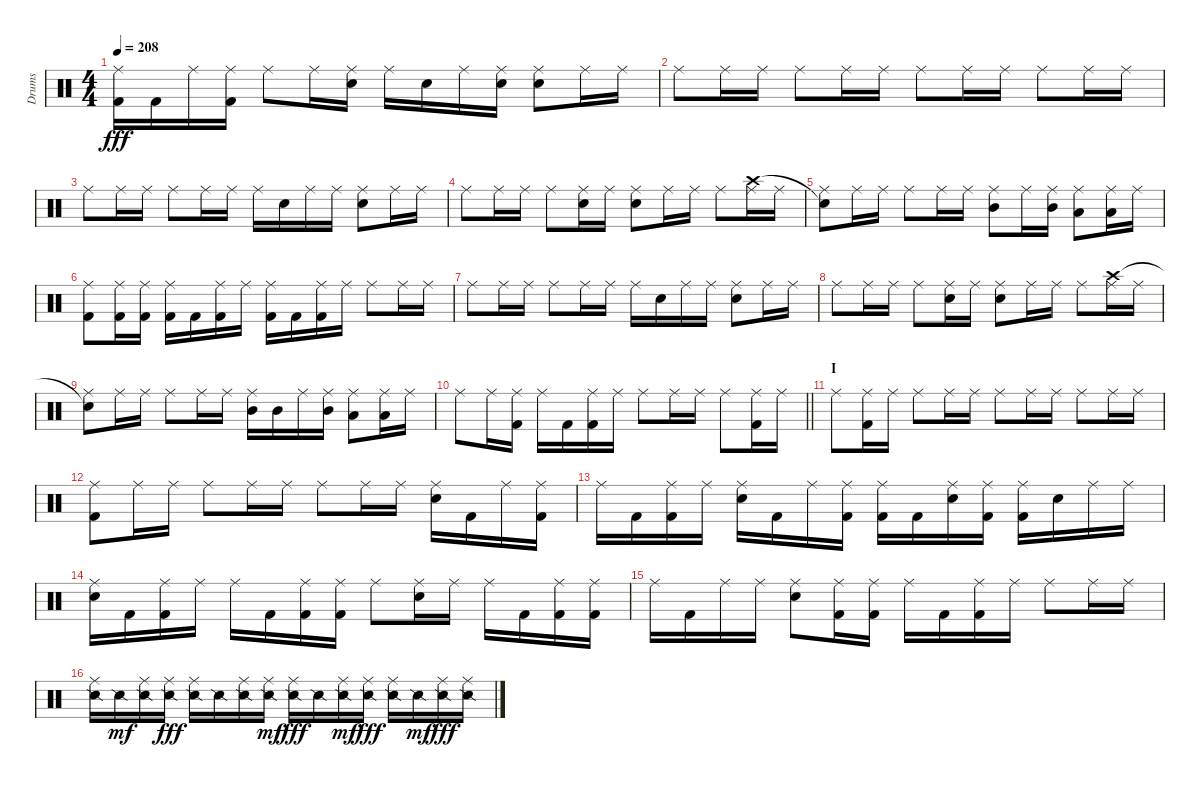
\track ("Drums" "Drums") {instrument percussion}
\staff {score}
\articulation defaults
\ts (4 4)
\tempo 208
\clef neutral
\ks c
("Ride (middle)" "Kick (hit) 2").16{dy fff} "Kick (hit) 2".16 "Ride (middle)".16 ("Ride (middle)" "Kick (hit) 2").16 "Ride (middle)".8 "Ride (middle)".16 ("Ride (middle)" "Snare (hit) 2").16 "Ride (middle)".16 "Snare (hit) 2".16 "Ride (middle)".16 ("Ride (middle)" "Snare (hit) 2").16 ("Ride (middle)" "Snare (hit) 2").8 "Ride (middle)".16 "Ride (middle)".16 |
"Ride (middle)".8 "Ride (middle)".16 "Ride (middle)".16 "Ride (middle)".8 "Ride (middle)".16 "Ride (middle)".16 "Ride (middle)".8 "Ride (middle)".16 "Ride (middle)".16 "Ride (middle)".8 "Ride (middle)".16 "Ride (middle)".16 |
"Ride (middle)".8 "Ride (middle)".16 "Ride (middle)".16 "Ride (middle)".8 "Ride (middle)".16 "Ride (middle)".16 "Ride (middle)".16 "Snare (hit) 2".16 "Ride (middle)".16 "Ride (middle)".16 ("Ride (middle)" "Snare (hit) 2").8 "Ride (middle)".16 "Ride (middle)".16 |
"Ride (middle)".8 "Ride (middle)".16 "Ride (middle)".16 "Ride (middle)".8 ("Ride (middle)" "Snare (hit) 2").16 "Ride (middle)".16 ("Ride (middle)" "Snare (hit) 2").8 "Ride (middle)".16 "Ride (middle)".16 "Ride (middle)".8 ("Ride (middle)" "Crash high (hit)").16 "Ride (middle)".16 |
("Ride (middle)" "Snare (hit)"{t}).8 "Ride (middle)".16 "Ride (middle)".16 "Ride (middle)".8 "Ride (middle)".16 "Ride (middle)".16 ("Ride (middle)" "Mid Tom (hit)").8 "Ride (middle)".16 ("Ride (middle)" "Mid Tom (hit)").16 ("Ride (middle)" "Low Tom (hit)").8 ("Ride (middle)" "Low Tom (hit)").16 "Ride (middle)".16 |
("Ride (middle)" "Kick (hit) 2").8 ("Ride (middle)" "Kick (hit) 2").16 ("Ride (middle)" "Kick (hit) 2").16 ("Ride (middle)" "Kick (hit) 2").16 "Kick (hit) 2".16 ("Ride (middle)" "Kick (hit) 2").16 "Ride (middle)".16 ("Ride (middle)" "Kick (hit) 2").16 "Kick (hit) 2".16 ("Ride (middle)" "Kick (hit) 2").16 "Ride (middle)".16 "Ride (middle)".8 "Ride (middle)".16 "Ride (middle)".16 |
"Ride (middle)".8 "Ride (middle)".16 "Ride (middle)".16 "Ride (middle)".8 "Ride (middle)".16 "Ride (middle)".16 "Ride (middle)".16 "Snare (hit) 2".16 "Ride (middle)".16 "Ride (middle)".16 ("Ride (middle)" "Snare (hit) 2").8 "Ride (middle)".16 "Ride (middle)".16 |
"Ride (middle)".8 "Ride (middle)".16 "Ride (middle)".16 "Ride (middle)".8 ("Ride (middle)" "Snare (hit) 2").16 "Ride (middle)".16 ("Ride (middle)" "Snare (hit) 2").8 "Ride (middle)".16 "Ride (middle)".16 "Ride (middle)".8 ("Ride (middle)" "Crash high (hit)").16 "Ride (middle)".16 |
("Ride (middle)" "Snare (hit)"{t}).8 "Ride (middle)".16 "Ride (middle)".16 "Ride (middle)".8 "Ride (middle)".16 "Ride (middle)".16 ("Ride (middle)" "Mid Tom (hit)").16 "Mid Tom (hit)".16 "Ride (middle)".16 ("Ride (middle)" "Mid Tom (hit)").16 ("Ride (middle)" "Low Tom (hit)").8 ("Ride (middle)" "Low Tom (hit)").16 "Ride (middle)".16 |
\barLineRight lightlight "Ride (middle)".8 "Ride (middle)".16
("Ride (middle)" "Kick (hit) 2").16 "Ride (middle)".16 "Kick (hit) 2".16 ("Ride (middle)" "Kick (hit) 2").16 "Ride (middle)".16 "Ride (middle)".8 "Ride (middle)".16 "Ride (middle)".16 "Ride (middle)".8 ("Ride (middle)" "Kick (hit) 2").16 "Ride (middle)".16 |
\section ("" "I")
"Ride (middle)".8 ("Ride (middle)" "Kick (hit) 2").16 "Ride (middle)".16 "Ride (middle)".8 "Ride (middle)".16 "Ride (middle)".16 "Ride (middle)".8 "Ride (middle)".16 "Ride (middle)".16 "Ride (middle)".8 "Ride (middle)".16 "Ride (middle)".16 |
("Ride (middle)" "Kick (hit) 2").8 "Ride (middle)".16 "Ride (middle)".16 "Ride (middle)".8 "Ride (middle)".16 "Ride (middle)".16 "Ride (middle)".8 "Ride (middle)".16 "Ride (middle)".16 ("Ride (middle)" "Snare (hit) 2").16 "Kick (hit) 2".16 "Ride (middle)".16 ("Ride (middle)" "Kick (hit) 2").16 |
"Ride (middle)".16 "Kick (hit) 2".16 ("Ride (middle)" "Kick (hit) 2").16 "Ride (middle)".16 ("Ride (middle)" "Snare (hit) 2").16 "Kick (hit) 2".16 "Ride (middle)".16 ("Ride (middle)" "Kick (hit) 2").16 ("Ride (middle)" "Kick (hit) 2").16 "Kick (hit) 2".16 ("Ride (middle)" "Snare (hit) 2").16 ("Ride (middle)" "Kick (hit) 2").16 ("Ride (middle)" "Kick (hit) 2").16 "Snare (hit) 2".16 "Ride (middle)".16 "Ride (middle)".16 |
("Ride (middle)" "Snare (hit) 2").16 "Kick (hit) 2".16 ("Ride (middle)" "Kick (hit) 2").16 "Ride (middle)".16 "Ride (middle)".16 "Kick (hit) 2".16 ("Ride (middle)" "Kick (hit) 2").16 ("Ride (middle)" "Kick (hit) 2").16 "Ride (middle)".8 ("Ride (middle)" "Snare (hit) 2").16 "Ride (middle)".16 "Ride (middle)".16 "Kick (hit) 2".16 ("Ride (middle)" "Kick (hit) 2").16 ("Ride (middle)" "Kick (hit) 2").16 |
"Ride (middle)".16 "Kick (hit) 2".16 "Ride (middle)".16 "Ride (middle)".16 ("Ride (middle)" "Snare (hit) 2").8 ("Ride (middle)" "Kick (hit) 2").16 ("Ride (middle)" "Kick (hit) 2").16 "Ride (middle)".16 "Kick (hit) 2".16 ("Ride (middle)" "Kick (hit) 2").16 "Ride (middle)".16 "Ride (middle)".8 "Ride (middle)".16 "Ride (middle)".16 |
("Ride (middle)" "Snare (side stick) 2").16 "Snare (side stick) 2".16{dy mf} ("Ride (middle)" "Snare (side stick) 2").16 ("Ride (middle)" "Snare (side stick) 2").16{dy fff} ("Ride (middle)" "Snare (side stick) 2").16 "Snare (side stick) 2".16 ("Ride (middle)" "Snare (side stick) 2").16 ("Ride (middle)" "Snare (side stick) 2").16{dy mf} ("Ride (middle)" "Snare (side stick) 2").16{dy fff} "Snare (side stick) 2".16 ("Ride (middle)" "Snare (side stick) 2").16{dy mf} ("Ride (middle)" "Snare (side stick) 2").16{dy fff} ("Ride (middle)" "Snare (side stick) 2").16 "Snare (side stick) 2".16{dy mf} ("Ride (middle)" "Snare (side stick) 2").16{dy fff} ("Ride (middle)" "Snare (side stick) 2").16
